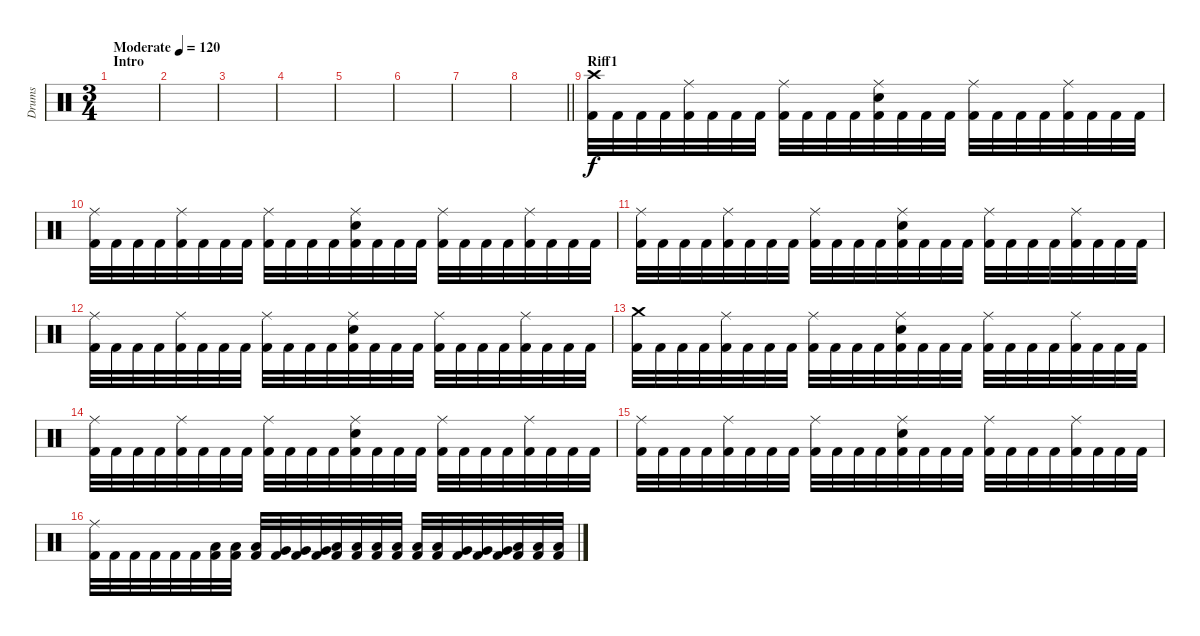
\track ("Drums" "Drums") {instrument percussion}
\staff {score}
\articulation defaults
\ts (3 4)
\section ("" "Intro")
\tempo (120 "Moderate")
\tempo 89
\tempo (120 "Moderate")
\clef neutral
\ks c
|
|
|
|
|
|
|
\barLineRight lightlight
|
\section ("" "Riff1")
("Kick (hit) 2" "Crash high (hit)").32 "Kick (hit) 2".32 "Kick (hit) 2".32 "Kick (hit) 2".32 ("Kick (hit) 2" "Ride (middle)").32 "Kick (hit) 2".32 "Kick (hit) 2".32 "Kick (hit) 2".32 ("Kick (hit) 2" "Ride (middle)").32 "Kick (hit) 2".32 "Kick (hit) 2".32 "Kick (hit) 2".32 ("Kick (hit) 2" "Ride (middle)" "Snare (hit) 2").32 "Kick (hit) 2".32 "Kick (hit) 2".32 "Kick (hit) 2".32 ("Kick (hit) 2" "Ride (middle)").32 "Kick (hit) 2".32 "Kick (hit) 2".32 "Kick (hit) 2".32 ("Kick (hit) 2" "Ride (middle)").32 "Kick (hit) 2".32 "Kick (hit) 2".32 "Kick (hit) 2".32 |
("Kick (hit) 2" "Ride (middle)").32 "Kick (hit) 2".32 "Kick (hit) 2".32 "Kick (hit) 2".32 ("Kick (hit) 2" "Ride (middle)").32 "Kick (hit) 2".32 "Kick (hit) 2".32 "Kick (hit) 2".32 ("Kick (hit) 2" "Ride (middle)").32 "Kick (hit) 2".32 "Kick (hit) 2".32 "Kick (hit) 2".32 ("Kick (hit) 2" "Ride (middle)" "Snare (hit) 2").32 "Kick (hit) 2".32 "Kick (hit) 2".32 "Kick (hit) 2".32 ("Kick (hit) 2" "Ride (middle)").32 "Kick (hit) 2".32 "Kick (hit) 2".32 "Kick (hit) 2".32 ("Kick (hit) 2" "Ride (middle)").32 "Kick (hit) 2".32 "Kick (hit) 2".32 "Kick (hit) 2".32 |
("Kick (hit) 2" "Ride (middle)").32 "Kick (hit) 2".32 "Kick (hit) 2".32 "Kick (hit) 2".32 ("Kick (hit) 2" "Ride (middle)").32 "Kick (hit) 2".32 "Kick (hit) 2".32 "Kick (hit) 2".32 ("Kick (hit) 2" "Ride (middle)").32 "Kick (hit) 2".32 "Kick (hit) 2".32 "Kick (hit) 2".32 ("Kick (hit) 2" "Ride (middle)" "Snare (hit) 2").32 "Kick (hit) 2".32 "Kick (hit) 2".32 "Kick (hit) 2".32 ("Kick (hit) 2" "Ride (middle)").32 "Kick (hit) 2".32 "Kick (hit) 2".32 "Kick (hit) 2".32 ("Kick (hit) 2" "Ride (middle)").32 "Kick (hit) 2".32 "Kick (hit) 2".32 "Kick (hit) 2".32 |
("Kick (hit) 2" "Ride (middle)").32 "Kick (hit) 2".32 "Kick (hit) 2".32 "Kick (hit) 2".32 ("Kick (hit) 2" "Ride (middle)").32 "Kick (hit) 2".32 "Kick (hit) 2".32 "Kick (hit) 2".32 ("Kick (hit) 2" "Ride (middle)").32 "Kick (hit) 2".32 "Kick (hit) 2".32 "Kick (hit) 2".32 ("Kick (hit) 2" "Ride (middle)" "Snare (hit) 2").32 "Kick (hit) 2".32 "Kick (hit) 2".32 "Kick (hit) 2".32 ("Kick (hit) 2" "Ride (middle)").32 "Kick (hit) 2".32 "Kick (hit) 2".32 "Kick (hit) 2".32 ("Kick (hit) 2" "Ride (middle)").32 "Kick (hit) 2".32 "Kick (hit) 2".32 "Kick (hit) 2".32 |
("Kick (hit) 2" "Crash medium (hit)").32 "Kick (hit) 2".32 "Kick (hit) 2".32 "Kick (hit) 2".32 ("Kick (hit) 2" "Ride (middle)").32 "Kick (hit) 2".32 "Kick (hit) 2".32 "Kick (hit) 2".32 ("Kick (hit) 2" "Ride (middle)").32 "Kick (hit) 2".32 "Kick (hit) 2".32 "Kick (hit) 2".32 ("Kick (hit) 2" "Ride (middle)" "Snare (hit) 2").32 "Kick (hit) 2".32 "Kick (hit) 2".32 "Kick (hit) 2".32 ("Kick (hit) 2" "Ride (middle)").32 "Kick (hit) 2".32 "Kick (hit) 2".32 "Kick (hit) 2".32 ("Kick (hit) 2" "Ride (middle)").32 "Kick (hit) 2".32 "Kick (hit) 2".32 "Kick (hit) 2".32 |
("Kick (hit) 2" "Ride (middle)").32 "Kick (hit) 2".32 "Kick (hit) 2".32 "Kick (hit) 2".32 ("Kick (hit) 2" "Ride (middle)").32 "Kick (hit) 2".32 "Kick (hit) 2".32 "Kick (hit) 2".32 ("Kick (hit) 2" "Ride (middle)").32 "Kick (hit) 2".32 "Kick (hit) 2".32 "Kick (hit) 2".32 ("Kick (hit) 2" "Ride (middle)" "Snare (hit) 2").32 "Kick (hit) 2".32 "Kick (hit) 2".32 "Kick (hit) 2".32 ("Kick (hit) 2" "Ride (middle)").32 "Kick (hit) 2".32 "Kick (hit) 2".32 "Kick (hit) 2".32 ("Kick (hit) 2" "Ride (middle)").32 "Kick (hit) 2".32 "Kick (hit) 2".32 "Kick (hit) 2".32 |
("Kick (hit) 2" "Ride (middle)").32 "Kick (hit) 2".32 "Kick (hit) 2".32 "Kick (hit) 2".32 ("Kick (hit) 2" "Ride (middle)").32 "Kick (hit) 2".32 "Kick (hit) 2".32 "Kick (hit) 2".32 ("Kick (hit) 2" "Ride (middle)").32 "Kick (hit) 2".32 "Kick (hit) 2".32 "Kick (hit) 2".32 ("Kick (hit) 2" "Ride (middle)" "Snare (hit) 2").32 "Kick (hit) 2".32 "Kick (hit) 2".32 "Kick (hit) 2".32 ("Kick (hit) 2" "Ride (middle)").32 "Kick (hit) 2".32 "Kick (hit) 2".32 "Kick (hit) 2".32 ("Kick (hit) 2" "Ride (middle)").32 "Kick (hit) 2".32 "Kick (hit) 2".32 "Kick (hit) 2".32 |
("Kick (hit) 2" "Ride (middle)").32 "Kick (hit) 2".32 "Kick (hit) 2".32 "Kick (hit) 2".32 "Kick (hit) 2".32 "Kick (hit) 2".32 ("Kick (hit) 2" "Low Tom (hit)").32 ("Kick (hit) 2" "Low Tom (hit)").32 ("Kick (hit) 2" "Low Tom (hit)").32 ("Kick (hit) 2" "Very Low Tom (hit)").32 ("Kick (hit) 2" "Very Low Tom (hit)").32 ("Kick (hit) 2" "Very Low Tom (hit)").32 ("Kick (hit) 2" "Low Floor Tom (hit)").32 ("Kick (hit) 2" "Low Floor Tom (hit)").32 ("Kick (hit) 2" "Low Floor Tom (hit)").32 ("Kick (hit) 2" "Low Tom (hit)").32 ("Kick (hit) 2" "Low Tom (hit)").32 ("Kick (hit) 2" "Low Tom (hit)").32 ("Kick (hit) 2" "Very Low Tom (hit)").32 ("Kick (hit) 2" "Very Low Tom (hit)").32 ("Kick (hit) 2" "Very Low Tom (hit)").32 ("Kick (hit) 2" "Low Floor Tom (hit)").32 ("Kick (hit) 2" "Low Floor Tom (hit)").32 ("Kick (hit) 2" "Low Floor Tom (hit)").32
